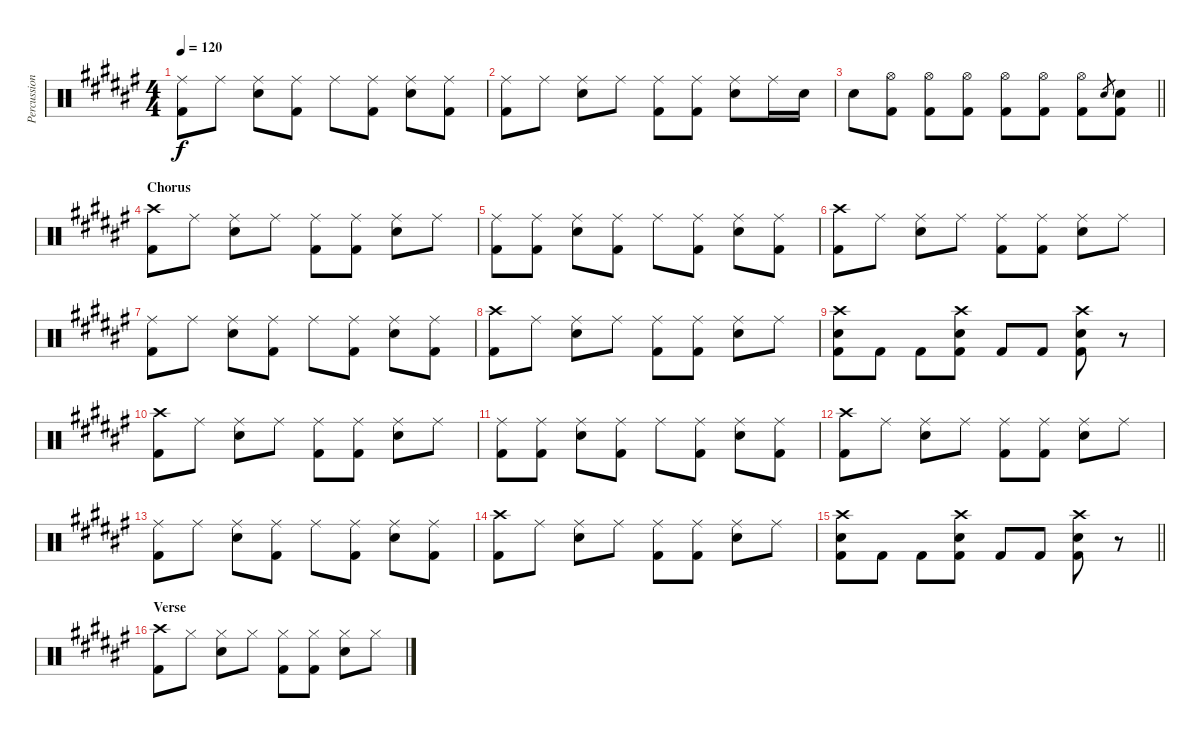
\track ("Percussion" "Percussion") {instrument percussion}
\staff {score}
\articulation defaults
\ts (4 4)
\tempo 120
\clef neutral
\ks f#
("Ride (middle)" "Kick (hit) 2").8{dy f} "Ride (middle)".8 ("Ride (middle)" "Electric Snare (hit)").8 ("Ride (middle)" "Kick (hit) 2").8 "Ride (middle)".8 ("Ride (middle)" "Kick (hit) 2").8 ("Ride (middle)" "Electric Snare (hit)").8 ("Ride (middle)" "Kick (hit) 2").8 |
("Ride (middle)" "Kick (hit) 2").8 "Ride (middle)".8 ("Ride (middle)" "Electric Snare (hit)").8 "Ride (middle)".8 ("Ride (middle)" "Kick (hit) 2").8 ("Ride (middle)" "Kick (hit) 2").8 ("Ride (middle)" "Electric Snare (hit)").8 "Ride (middle)".16 "Electric Snare (hit)".16 |
\barLineRight lightlight "Electric Snare (hit)".8
("Hi-Hat (open)" "Kick (hit) 2").8 ("Hi-Hat (open)" "Kick (hit) 2").8 ("Hi-Hat (open)" "Kick (hit) 2").8 ("Hi-Hat (open)" "Kick (hit) 2").8 ("Hi-Hat (open)" "Kick (hit) 2").8 ("Hi-Hat (open)" "Kick (hit) 2").8 "Electric Snare (hit)".8{gr} ("Electric Snare (hit)" "Kick (hit) 2").8 |
\section ("" "Chorus")
("Crash high (hit)" "Kick (hit) 2").8 "Ride (middle)".8 ("Ride (middle)" "Electric Snare (hit)").8 "Ride (middle)".8 ("Ride (middle)" "Kick (hit) 2").8 ("Ride (middle)" "Kick (hit) 2").8 ("Ride (middle)" "Electric Snare (hit)").8 "Ride (middle)".8 |
("Ride (middle)" "Kick (hit) 2").8 ("Ride (middle)" "Kick (hit) 2").8 ("Ride (middle)" "Electric Snare (hit)").8 ("Ride (middle)" "Kick (hit) 2").8 "Ride (middle)".8 ("Ride (middle)" "Kick (hit) 2").8 ("Ride (middle)" "Electric Snare (hit)").8 ("Ride (middle)" "Kick (hit) 2").8 |
("Crash high (hit)" "Kick (hit) 2").8 "Ride (middle)".8 ("Ride (middle)" "Electric Snare (hit)").8 "Ride (middle)".8 ("Ride (middle)" "Kick (hit) 2").8 ("Ride (middle)" "Kick (hit) 2").8 ("Ride (middle)" "Electric Snare (hit)").8 "Ride (middle)".8 |
("Ride (middle)" "Kick (hit) 2").8 "Ride (middle)".8 ("Ride (middle)" "Electric Snare (hit)").8 ("Ride (middle)" "Kick (hit) 2").8 "Ride (middle)".8 ("Ride (middle)" "Kick (hit) 2").8 ("Ride (middle)" "Electric Snare (hit)").8 ("Ride (middle)" "Kick (hit) 2").8 |
("Crash high (hit)" "Kick (hit) 2").8 "Ride (middle)".8 ("Ride (middle)" "Electric Snare (hit)").8 "Ride (middle)".8 ("Ride (middle)" "Kick (hit) 2").8 ("Ride (middle)" "Kick (hit) 2").8 ("Ride (middle)" "Electric Snare (hit)").8 "Ride (middle)".8 |
("Crash high (hit)" "Electric Snare (hit)" "Kick (hit) 2").8 "Kick (hit) 2".8 "Kick (hit) 2".8 ("Crash high (hit)" "Electric Snare (hit)" "Kick (hit) 2").8 "Kick (hit) 2".8 "Kick (hit) 2".8 ("Crash high (hit)" "Electric Snare (hit)" "Kick (hit) 2").8 r.8 |
("Crash high (hit)" "Kick (hit) 2").8 "Ride (middle)".8 ("Ride (middle)" "Electric Snare (hit)").8 "Ride (middle)".8 ("Ride (middle)" "Kick (hit) 2").8 ("Ride (middle)" "Kick (hit) 2").8 ("Ride (middle)" "Electric Snare (hit)").8 "Ride (middle)".8 |
("Ride (middle)" "Kick (hit) 2").8 ("Ride (middle)" "Kick (hit) 2").8 ("Ride (middle)" "Electric Snare (hit)").8 ("Ride (middle)" "Kick (hit) 2").8 "Ride (middle)".8 ("Ride (middle)" "Kick (hit) 2").8 ("Ride (middle)" "Electric Snare (hit)").8 ("Ride (middle)" "Kick (hit) 2").8 |
("Crash high (hit)" "Kick (hit) 2").8 "Ride (middle)".8 ("Ride (middle)" "Electric Snare (hit)").8 "Ride (middle)".8 ("Ride (middle)" "Kick (hit) 2").8 ("Ride (middle)" "Kick (hit) 2").8 ("Ride (middle)" "Electric Snare (hit)").8 "Ride (middle)".8 |
("Ride (middle)" "Kick (hit) 2").8 "Ride (middle)".8 ("Ride (middle)" "Electric Snare (hit)").8 ("Ride (middle)" "Kick (hit) 2").8 "Ride (middle)".8 ("Ride (middle)" "Kick (hit) 2").8 ("Ride (middle)" "Electric Snare (hit)").8 ("Ride (middle)" "Kick (hit) 2").8 |
("Crash high (hit)" "Kick (hit) 2").8 "Ride (middle)".8 ("Ride (middle)" "Electric Snare (hit)").8 "Ride (middle)".8 ("Ride (middle)" "Kick (hit) 2").8 ("Ride (middle)" "Kick (hit) 2").8 ("Ride (middle)" "Electric Snare (hit)").8 "Ride (middle)".8 |
\barLineRight lightlight
("Crash high (hit)" "Electric Snare (hit)" "Kick (hit) 2").8 "Kick (hit) 2".8 "Kick (hit) 2".8 ("Crash high (hit)" "Electric Snare (hit)" "Kick (hit) 2").8 "Kick (hit) 2".8 "Kick (hit) 2".8 ("Crash high (hit)" "Electric Snare (hit)" "Kick (hit) 2").8 r.8 |
\section ("" "Verse")
("Crash high (hit)" "Kick (hit) 2").8 "Hi-Hat (closed)".8 ("Hi-Hat (closed)" "Electric Snare (hit)").8 "Hi-Hat (closed)".8 ("Hi-Hat (closed)" "Kick (hit) 2").8 ("Hi-Hat (closed)" "Kick (hit) 2").8 ("Hi-Hat (closed)" "Electric Snare (hit)").8 "Hi-Hat (closed)".8
